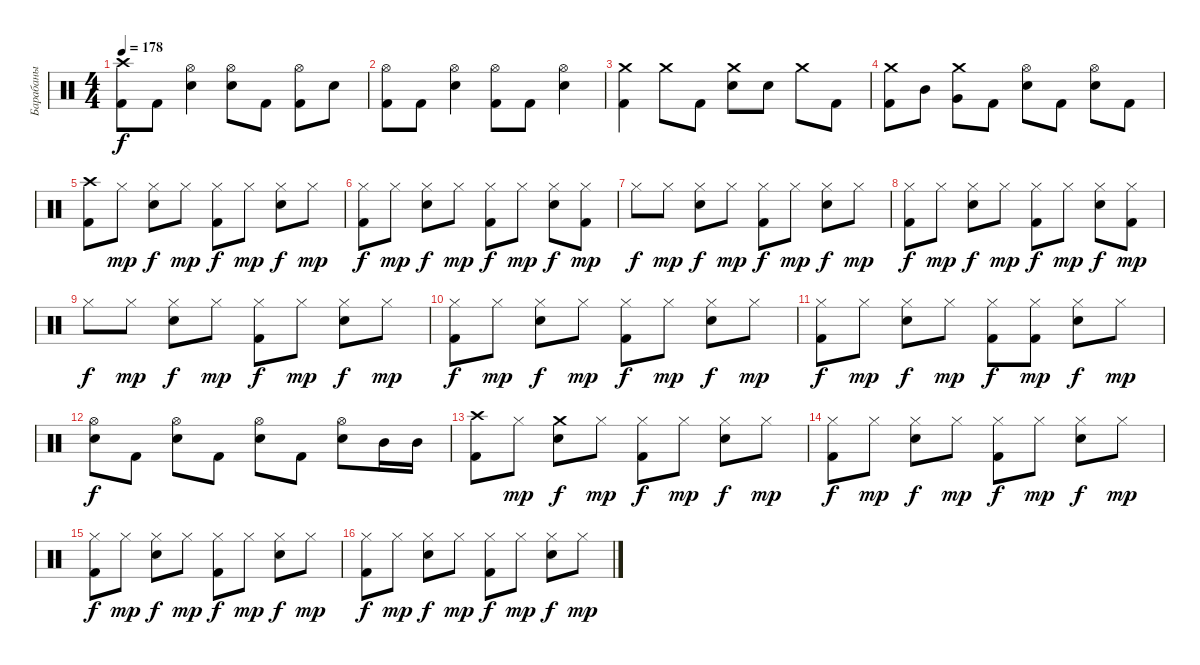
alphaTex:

\track ("Барабаны" "Барабаны") {instrument percussion}
\staff {score}
\articulation defaults
\ts (4 4)
\tempo 178
\clef neutral
\ks c
("Crash high (hit)" "Kick (hit) 2").8{dy f} "Kick (hit) 2".8 ("Hi-Hat (open)" "Electric Snare (hit)").4 ("Hi-Hat (open)" "Electric Snare (hit)").8 "Kick (hit) 2".8 ("Hi-Hat (open)" "Kick (hit) 2").8 "Electric Snare (hit)".8 |
("Hi-Hat (open)" "Kick (hit) 2").8 "Kick (hit) 2".8 ("Hi-Hat (open)" "Electric Snare (hit)").4 ("Hi-Hat (open)" "Kick (hit) 2").8 "Kick (hit) 2".8 ("Hi-Hat (open)" "Electric Snare (hit)").4 |
("Crash medium (hit)" "Kick (hit) 2").4 "Crash medium (hit)".8 "Kick (hit) 2".8 ("Crash medium (hit)" "Electric Snare (hit)").8 "Electric Snare (hit)".8 "Crash medium (hit)".8 "Kick (hit) 2".8 |
("Crash medium (hit)" "Kick (hit) 2").8 "Mid Tom (hit)".8 ("Crash medium (hit)" "Very Low Tom (hit)").8 "Kick (hit) 2".8 ("Hi-Hat (open)" "Electric Snare (hit)").8 "Kick (hit) 2".8 ("Hi-Hat (open)" "Electric Snare (hit)").8 "Kick (hit) 2".8 |
("Crash high (hit)" "Kick (hit) 2").8 "Hi-Hat (closed)".8{dy mp} ("Hi-Hat (closed)" "Electric Snare (hit)").8{dy f} "Hi-Hat (closed)".8{dy mp} ("Hi-Hat (closed)" "Kick (hit) 2").8{dy f} "Hi-Hat (closed)".8{dy mp} ("Hi-Hat (closed)" "Electric Snare (hit)").8{dy f} "Hi-Hat (closed)".8{dy mp} |
("Hi-Hat (closed)" "Kick (hit) 2").8{dy f} "Hi-Hat (closed)".8{dy mp} ("Hi-Hat (closed)" "Electric Snare (hit)").8{dy f} "Hi-Hat (closed)".8{dy mp} ("Hi-Hat (closed)" "Kick (hit) 2").8{dy f} "Hi-Hat (closed)".8{dy mp} ("Hi-Hat (closed)" "Electric Snare (hit)").8{dy f} ("Hi-Hat (closed)" "Kick (hit) 2").8{dy mp} |
"Hi-Hat (closed)".8{dy f} "Hi-Hat (closed)".8{dy mp} ("Hi-Hat (closed)" "Electric Snare (hit)").8{dy f} "Hi-Hat (closed)".8{dy mp} ("Hi-Hat (closed)" "Kick (hit) 2").8{dy f} "Hi-Hat (closed)".8{dy mp} ("Hi-Hat (closed)" "Electric Snare (hit)").8{dy f} "Hi-Hat (closed)".8{dy mp} |
("Hi-Hat (closed)" "Kick (hit) 2").8{dy f} "Hi-Hat (closed)".8{dy mp} ("Hi-Hat (closed)" "Electric Snare (hit)").8{dy f} "Hi-Hat (closed)".8{dy mp} ("Hi-Hat (closed)" "Kick (hit) 2").8{dy f} "Hi-Hat (closed)".8{dy mp} ("Hi-Hat (closed)" "Electric Snare (hit)").8{dy f} ("Hi-Hat (closed)" "Kick (hit) 2").8{dy mp} |
"Hi-Hat (closed)".8{dy f} "Hi-Hat (closed)".8{dy mp} ("Hi-Hat (closed)" "Electric Snare (hit)").8{dy f} "Hi-Hat (closed)".8{dy mp} ("Hi-Hat (closed)" "Kick (hit) 2").8{dy f} "Hi-Hat (closed)".8{dy mp} ("Hi-Hat (closed)" "Electric Snare (hit)").8{dy f} "Hi-Hat (closed)".8{dy mp} |
("Hi-Hat (closed)" "Kick (hit) 2").8{dy f} "Hi-Hat (closed)".8{dy mp} ("Hi-Hat (closed)" "Electric Snare (hit)").8{dy f} "Hi-Hat (closed)".8{dy mp} ("Hi-Hat (closed)" "Kick (hit) 2").8{dy f} "Hi-Hat (closed)".8{dy mp} ("Hi-Hat (closed)" "Electric Snare (hit)").8{dy f} "Hi-Hat (closed)".8{dy mp} |
("Hi-Hat (closed)" "Kick (hit) 2").8{dy f} "Hi-Hat (closed)".8{dy mp} ("Hi-Hat (closed)" "Electric Snare (hit)").8{dy f} "Hi-Hat (closed)".8{dy mp} ("Hi-Hat (closed)" "Kick (hit) 2").8{dy f} ("Hi-Hat (closed)" "Kick (hit) 2").8{dy mp} ("Hi-Hat (closed)" "Electric Snare (hit)").8{dy f} "Hi-Hat (closed)".8{dy mp} |
("Hi-Hat (open)" "Electric Snare (hit)").8{dy f} "Kick (hit) 2".8 ("Hi-Hat (open)" "Electric Snare (hit)").8 "Kick (hit) 2".8 ("Hi-Hat (open)" "Electric Snare (hit)").8 "Kick (hit) 2".8 ("Hi-Hat (open)" "Electric Snare (hit)").8 "Mid Tom (hit)".16 "Mid Tom (hit)".16 |
("Crash high (hit)" "Kick (hit) 2").8 "Hi-Hat (closed)".8{dy mp} ("Crash medium (hit)" "Electric Snare (hit)").8{dy f} "Hi-Hat (closed)".8{dy mp} ("Hi-Hat (closed)" "Kick (hit) 2").8{dy f} "Hi-Hat (closed)".8{dy mp} ("Hi-Hat (closed)" "Electric Snare (hit)").8{dy f} "Hi-Hat (closed)".8{dy mp} |
("Hi-Hat (closed)" "Kick (hit) 2").8{dy f} "Hi-Hat (closed)".8{dy mp} ("Hi-Hat (closed)" "Electric Snare (hit)").8{dy f} "Hi-Hat (closed)".8{dy mp} ("Hi-Hat (closed)" "Kick (hit) 2").8{dy f} "Hi-Hat (closed)".8{dy mp} ("Hi-Hat (closed)" "Electric Snare (hit)").8{dy f} "Hi-Hat (closed)".8{dy mp} |
("Hi-Hat (closed)" "Kick (hit) 2").8{dy f} "Hi-Hat (closed)".8{dy mp} ("Hi-Hat (closed)" "Electric Snare (hit)").8{dy f} "Hi-Hat (closed)".8{dy mp} ("Hi-Hat (closed)" "Kick (hit) 2").8{dy f} "Hi-Hat (closed)".8{dy mp} ("Hi-Hat (closed)" "Electric Snare (hit)").8{dy f} "Hi-Hat (closed)".8{dy mp} |
("Hi-Hat (closed)" "Kick (hit) 2").8{dy f} "Hi-Hat (closed)".8{dy mp} ("Hi-Hat (closed)" "Electric Snare (hit)").8{dy f} "Hi-Hat (closed)".8{dy mp} ("Hi-Hat (closed)" "Kick (hit) 2").8{dy f} "Hi-Hat (closed)".8{dy mp} ("Hi-Hat (closed)" "Electric Snare (hit)").8{dy f} "Hi-Hat (closed)".8{dy mp}
